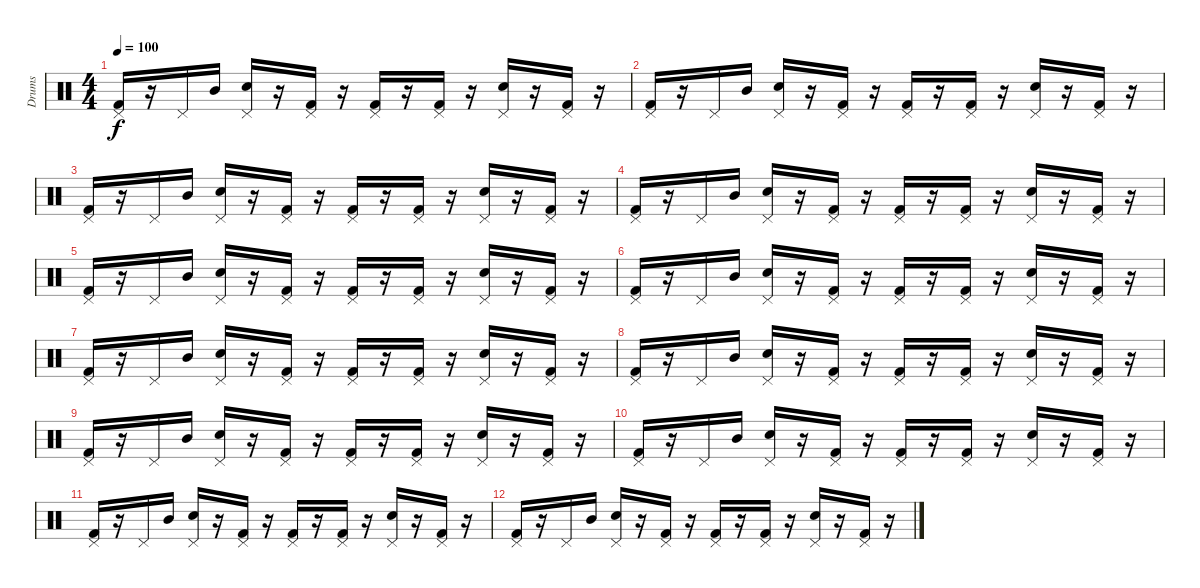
\track ("Drums" "Drums") {instrument percussion}
\staff {score}
\articulation defaults
\ts (4 4)
\tempo 100
\clef neutral
\ks c
("Kick (hit) 2" "Pedal Hi-Hat (hit)").16{dy f} r.16 "Pedal Hi-Hat (hit)".16 "Mid Tom (hit)".16 ("Pedal Hi-Hat (hit)" "Electric Snare (hit)").16 r.16 ("Kick (hit) 2" "Pedal Hi-Hat (hit)").16 r.16 ("Kick (hit) 2" "Pedal Hi-Hat (hit)").16 r.16 ("Kick (hit) 2" "Pedal Hi-Hat (hit)").16 r.16 ("Pedal Hi-Hat (hit)" "Electric Snare (hit)").16 r.16 ("Kick (hit) 2" "Pedal Hi-Hat (hit)").16 r.16 |
("Kick (hit) 2" "Pedal Hi-Hat (hit)").16 r.16 "Pedal Hi-Hat (hit)".16 "Mid Tom (hit)".16 ("Pedal Hi-Hat (hit)" "Electric Snare (hit)").16 r.16 ("Kick (hit) 2" "Pedal Hi-Hat (hit)").16 r.16 ("Kick (hit) 2" "Pedal Hi-Hat (hit)").16 r.16 ("Kick (hit) 2" "Pedal Hi-Hat (hit)").16 r.16 ("Pedal Hi-Hat (hit)" "Electric Snare (hit)").16 r.16 ("Kick (hit) 2" "Pedal Hi-Hat (hit)").16 r.16 |
("Kick (hit) 2" "Pedal Hi-Hat (hit)").16 r.16 "Pedal Hi-Hat (hit)".16 "Mid Tom (hit)".16 ("Pedal Hi-Hat (hit)" "Electric Snare (hit)").16 r.16 ("Kick (hit) 2" "Pedal Hi-Hat (hit)").16 r.16 ("Kick (hit) 2" "Pedal Hi-Hat (hit)").16 r.16 ("Kick (hit) 2" "Pedal Hi-Hat (hit)").16 r.16 ("Pedal Hi-Hat (hit)" "Electric Snare (hit)").16 r.16 ("Kick (hit) 2" "Pedal Hi-Hat (hit)").16 r.16 |
("Kick (hit) 2" "Pedal Hi-Hat (hit)").16 r.16 "Pedal Hi-Hat (hit)".16 "Mid Tom (hit)".16 ("Pedal Hi-Hat (hit)" "Electric Snare (hit)").16 r.16 ("Kick (hit) 2" "Pedal Hi-Hat (hit)").16 r.16 ("Kick (hit) 2" "Pedal Hi-Hat (hit)").16 r.16 ("Kick (hit) 2" "Pedal Hi-Hat (hit)").16 r.16 ("Pedal Hi-Hat (hit)" "Electric Snare (hit)").16 r.16 ("Kick (hit) 2" "Pedal Hi-Hat (hit)").16 r.16 |
("Kick (hit) 2" "Pedal Hi-Hat (hit)").16 r.16 "Pedal Hi-Hat (hit)".16 "Mid Tom (hit)".16 ("Pedal Hi-Hat (hit)" "Electric Snare (hit)").16 r.16 ("Kick (hit) 2" "Pedal Hi-Hat (hit)").16 r.16 ("Kick (hit) 2" "Pedal Hi-Hat (hit)").16 r.16 ("Kick (hit) 2" "Pedal Hi-Hat (hit)").16 r.16 ("Pedal Hi-Hat (hit)" "Electric Snare (hit)").16 r.16 ("Kick (hit) 2" "Pedal Hi-Hat (hit)").16 r.16 |
("Kick (hit) 2" "Pedal Hi-Hat (hit)").16 r.16 "Pedal Hi-Hat (hit)".16 "Mid Tom (hit)".16 ("Pedal Hi-Hat (hit)" "Electric Snare (hit)").16 r.16 ("Kick (hit) 2" "Pedal Hi-Hat (hit)").16 r.16 ("Kick (hit) 2" "Pedal Hi-Hat (hit)").16 r.16 ("Kick (hit) 2" "Pedal Hi-Hat (hit)").16 r.16 ("Pedal Hi-Hat (hit)" "Electric Snare (hit)").16 r.16 ("Kick (hit) 2" "Pedal Hi-Hat (hit)").16 r.16 |
("Kick (hit) 2" "Pedal Hi-Hat (hit)").16 r.16 "Pedal Hi-Hat (hit)".16 "Mid Tom (hit)".16 ("Pedal Hi-Hat (hit)" "Electric Snare (hit)").16 r.16 ("Kick (hit) 2" "Pedal Hi-Hat (hit)").16 r.16 ("Kick (hit) 2" "Pedal Hi-Hat (hit)").16 r.16 ("Kick (hit) 2" "Pedal Hi-Hat (hit)").16 r.16 ("Pedal Hi-Hat (hit)" "Electric Snare (hit)").16 r.16 ("Kick (hit) 2" "Pedal Hi-Hat (hit)").16 r.16 |
("Kick (hit) 2" "Pedal Hi-Hat (hit)").16 r.16 "Pedal Hi-Hat (hit)".16 "Mid Tom (hit)".16 ("Pedal Hi-Hat (hit)" "Electric Snare (hit)").16 r.16 ("Kick (hit) 2" "Pedal Hi-Hat (hit)").16 r.16 ("Kick (hit) 2" "Pedal Hi-Hat (hit)").16 r.16 ("Kick (hit) 2" "Pedal Hi-Hat (hit)").16 r.16 ("Pedal Hi-Hat (hit)" "Electric Snare (hit)").16 r.16 ("Kick (hit) 2" "Pedal Hi-Hat (hit)").16 r.16 |
("Kick (hit) 2" "Pedal Hi-Hat (hit)").16 r.16 "Pedal Hi-Hat (hit)".16 "Mid Tom (hit)".16 ("Pedal Hi-Hat (hit)" "Electric Snare (hit)").16 r.16 ("Kick (hit) 2" "Pedal Hi-Hat (hit)").16 r.16 ("Kick (hit) 2" "Pedal Hi-Hat (hit)").16 r.16 ("Kick (hit) 2" "Pedal Hi-Hat (hit)").16 r.16 ("Pedal Hi-Hat (hit)" "Electric Snare (hit)").16 r.16 ("Kick (hit) 2" "Pedal Hi-Hat (hit)").16 r.16 |
("Kick (hit) 2" "Pedal Hi-Hat (hit)").16 r.16 "Pedal Hi-Hat (hit)".16 "Mid Tom (hit)".16 ("Pedal Hi-Hat (hit)" "Electric Snare (hit)").16 r.16 ("Kick (hit) 2" "Pedal Hi-Hat (hit)").16 r.16 ("Kick (hit) 2" "Pedal Hi-Hat (hit)").16 r.16 ("Kick (hit) 2" "Pedal Hi-Hat (hit)").16 r.16 ("Pedal Hi-Hat (hit)" "Electric Snare (hit)").16 r.16 ("Kick (hit) 2" "Pedal Hi-Hat (hit)").16 r.16 |
("Kick (hit) 2" "Pedal Hi-Hat (hit)").16 r.16 "Pedal Hi-Hat (hit)".16 "Mid Tom (hit)".16 ("Pedal Hi-Hat (hit)" "Electric Snare (hit)").16 r.16 ("Kick (hit) 2" "Pedal Hi-Hat (hit)").16 r.16 ("Kick (hit) 2" "Pedal Hi-Hat (hit)").16 r.16 ("Kick (hit) 2" "Pedal Hi-Hat (hit)").16 r.16 ("Pedal Hi-Hat (hit)" "Electric Snare (hit)").16 r.16 ("Kick (hit) 2" "Pedal Hi-Hat (hit)").16 r.16 |
("Kick (hit) 2" "Pedal Hi-Hat (hit)").16 r.16 "Pedal Hi-Hat (hit)".16 "Mid Tom (hit)".16 ("Pedal Hi-Hat (hit)" "Electric Snare (hit)").16 r.16 ("Kick (hit) 2" "Pedal Hi-Hat (hit)").16 r.16 ("Kick (hit) 2" "Pedal Hi-Hat (hit)").16 r.16 ("Kick (hit) 2" "Pedal Hi-Hat (hit)").16 r.16 ("Pedal Hi-Hat (hit)" "Electric Snare (hit)").16 r.16 ("Kick (hit) 2" "Pedal Hi-Hat (hit)").16 r.16
